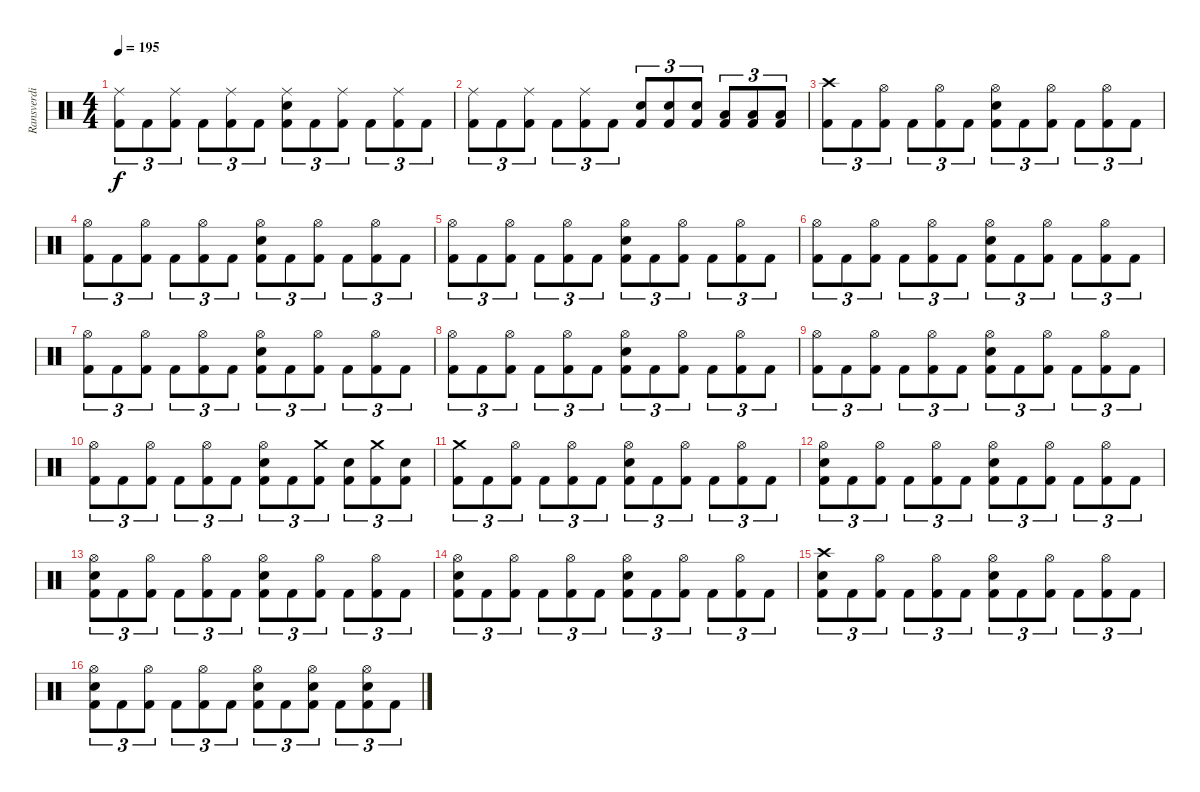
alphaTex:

\track ("Ransverdi" "Ransverdi") {instrument percussion}
\staff {score}
\articulation defaults
\ts (4 4)
\tempo 195
\clef neutral
\ks c
("Ride (middle)" "Kick (hit) 2").8{tu (3 2) dy f} "Kick (hit) 2".8{tu (3 2)} ("Ride (middle)" "Kick (hit) 2").8{tu (3 2)} "Kick (hit) 2".8{tu (3 2)} ("Ride (middle)" "Kick (hit) 2").8{tu (3 2)} "Kick (hit) 2".8{tu (3 2)} ("Ride (middle)" "Snare (hit) 2" "Kick (hit) 2").8{tu (3 2)} "Kick (hit) 2".8{tu (3 2)} ("Ride (middle)" "Kick (hit) 2").8{tu (3 2)} "Kick (hit) 2".8{tu (3 2)} ("Ride (middle)" "Kick (hit) 2").8{tu (3 2)} "Kick (hit) 2".8{tu (3 2)} |
("Ride (middle)" "Kick (hit) 2").8{tu (3 2)} "Kick (hit) 2".8{tu (3 2)} ("Ride (middle)" "Kick (hit) 2").8{tu (3 2)} "Kick (hit) 2".8{tu (3 2)} ("Ride (middle)" "Kick (hit) 2").8{tu (3 2)} "Kick (hit) 2".8{tu (3 2)} ("Snare (hit) 2" "Kick (hit) 2").8{tu (3 2)} ("Snare (hit) 2" "Kick (hit) 2").8{tu (3 2)} ("Snare (hit) 2" "Kick (hit) 2").8{tu (3 2)} ("Low Tom (hit)" "Kick (hit) 2").8{tu (3 2)} ("Low Tom (hit)" "Kick (hit) 2").8{tu (3 2)} ("Low Tom (hit)" "Kick (hit) 2").8{tu (3 2)} |
("Crash high (hit)" "Kick (hit) 2").8{tu (3 2)} "Kick (hit) 2".8{tu (3 2)} ("Hi-Hat (open)" "Kick (hit) 2").8{tu (3 2)} "Kick (hit) 2".8{tu (3 2)} ("Hi-Hat (open)" "Kick (hit) 2").8{tu (3 2)} "Kick (hit) 2".8{tu (3 2)} ("Hi-Hat (open)" "Snare (hit) 2" "Kick (hit) 2").8{tu (3 2)} "Kick (hit) 2".8{tu (3 2)} ("Hi-Hat (open)" "Kick (hit) 2").8{tu (3 2)} "Kick (hit) 2".8{tu (3 2)} ("Hi-Hat (open)" "Kick (hit) 2").8{tu (3 2)} "Kick (hit) 2".8{tu (3 2)} |
("Hi-Hat (open)" "Kick (hit) 2").8{tu (3 2)} "Kick (hit) 2".8{tu (3 2)} ("Hi-Hat (open)" "Kick (hit) 2").8{tu (3 2)} "Kick (hit) 2".8{tu (3 2)} ("Hi-Hat (open)" "Kick (hit) 2").8{tu (3 2)} "Kick (hit) 2".8{tu (3 2)} ("Hi-Hat (open)" "Snare (hit) 2" "Kick (hit) 2").8{tu (3 2)} "Kick (hit) 2".8{tu (3 2)} ("Hi-Hat (open)" "Kick (hit) 2").8{tu (3 2)} "Kick (hit) 2".8{tu (3 2)} ("Hi-Hat (open)" "Kick (hit) 2").8{tu (3 2)} "Kick (hit) 2".8{tu (3 2)} |
("Hi-Hat (open)" "Kick (hit) 2").8{tu (3 2)} "Kick (hit) 2".8{tu (3 2)} ("Hi-Hat (open)" "Kick (hit) 2").8{tu (3 2)} "Kick (hit) 2".8{tu (3 2)} ("Hi-Hat (open)" "Kick (hit) 2").8{tu (3 2)} "Kick (hit) 2".8{tu (3 2)} ("Hi-Hat (open)" "Snare (hit) 2" "Kick (hit) 2").8{tu (3 2)} "Kick (hit) 2".8{tu (3 2)} ("Hi-Hat (open)" "Kick (hit) 2").8{tu (3 2)} "Kick (hit) 2".8{tu (3 2)} ("Hi-Hat (open)" "Kick (hit) 2").8{tu (3 2)} "Kick (hit) 2".8{tu (3 2)} |
("Hi-Hat (open)" "Kick (hit) 2").8{tu (3 2)} "Kick (hit) 2".8{tu (3 2)} ("Hi-Hat (open)" "Kick (hit) 2").8{tu (3 2)} "Kick (hit) 2".8{tu (3 2)} ("Hi-Hat (open)" "Kick (hit) 2").8{tu (3 2)} "Kick (hit) 2".8{tu (3 2)} ("Hi-Hat (open)" "Snare (hit) 2" "Kick (hit) 2").8{tu (3 2)} "Kick (hit) 2".8{tu (3 2)} ("Hi-Hat (open)" "Kick (hit) 2").8{tu (3 2)} "Kick (hit) 2".8{tu (3 2)} ("Hi-Hat (open)" "Kick (hit) 2").8{tu (3 2)} "Kick (hit) 2".8{tu (3 2)} |
("Hi-Hat (open)" "Kick (hit) 2").8{tu (3 2)} "Kick (hit) 2".8{tu (3 2)} ("Hi-Hat (open)" "Kick (hit) 2").8{tu (3 2)} "Kick (hit) 2".8{tu (3 2)} ("Hi-Hat (open)" "Kick (hit) 2").8{tu (3 2)} "Kick (hit) 2".8{tu (3 2)} ("Hi-Hat (open)" "Snare (hit) 2" "Kick (hit) 2").8{tu (3 2)} "Kick (hit) 2".8{tu (3 2)} ("Hi-Hat (open)" "Kick (hit) 2").8{tu (3 2)} "Kick (hit) 2".8{tu (3 2)} ("Hi-Hat (open)" "Kick (hit) 2").8{tu (3 2)} "Kick (hit) 2".8{tu (3 2)} |
("Hi-Hat (open)" "Kick (hit) 2").8{tu (3 2)} "Kick (hit) 2".8{tu (3 2)} ("Hi-Hat (open)" "Kick (hit) 2").8{tu (3 2)} "Kick (hit) 2".8{tu (3 2)} ("Hi-Hat (open)" "Kick (hit) 2").8{tu (3 2)} "Kick (hit) 2".8{tu (3 2)} ("Hi-Hat (open)" "Snare (hit) 2" "Kick (hit) 2").8{tu (3 2)} "Kick (hit) 2".8{tu (3 2)} ("Hi-Hat (open)" "Kick (hit) 2").8{tu (3 2)} "Kick (hit) 2".8{tu (3 2)} ("Hi-Hat (open)" "Kick (hit) 2").8{tu (3 2)} "Kick (hit) 2".8{tu (3 2)} |
("Hi-Hat (open)" "Kick (hit) 2").8{tu (3 2)} "Kick (hit) 2".8{tu (3 2)} ("Hi-Hat (open)" "Kick (hit) 2").8{tu (3 2)} "Kick (hit) 2".8{tu (3 2)} ("Hi-Hat (open)" "Kick (hit) 2").8{tu (3 2)} "Kick (hit) 2".8{tu (3 2)} ("Hi-Hat (open)" "Snare (hit) 2" "Kick (hit) 2").8{tu (3 2)} "Kick (hit) 2".8{tu (3 2)} ("Hi-Hat (open)" "Kick (hit) 2").8{tu (3 2)} "Kick (hit) 2".8{tu (3 2)} ("Hi-Hat (open)" "Kick (hit) 2").8{tu (3 2)} "Kick (hit) 2".8{tu (3 2)} |
("Hi-Hat (open)" "Kick (hit) 2").8{tu (3 2)} "Kick (hit) 2".8{tu (3 2)} ("Hi-Hat (open)" "Kick (hit) 2").8{tu (3 2)} "Kick (hit) 2".8{tu (3 2)} ("Hi-Hat (open)" "Kick (hit) 2").8{tu (3 2)} "Kick (hit) 2".8{tu (3 2)} ("Hi-Hat (open)" "Snare (hit) 2" "Kick (hit) 2").8{tu (3 2)} "Kick (hit) 2".8{tu (3 2)} ("Crash medium (hit)" "Kick (hit) 2").8{tu (3 2)} ("Snare (hit) 2" "Kick (hit) 2").8{tu (3 2)} ("Crash medium (hit)" "Kick (hit) 2").8{tu (3 2)} ("Snare (hit) 2" "Kick (hit) 2").8{tu (3 2)} |
("Crash medium (hit)" "Kick (hit) 2").8{tu (3 2)} "Kick (hit) 2".8{tu (3 2)} ("Hi-Hat (open)" "Kick (hit) 2").8{tu (3 2)} "Kick (hit) 2".8{tu (3 2)} ("Hi-Hat (open)" "Kick (hit) 2").8{tu (3 2)} "Kick (hit) 2".8{tu (3 2)} ("Hi-Hat (open)" "Snare (hit) 2" "Kick (hit) 2").8{tu (3 2)} "Kick (hit) 2".8{tu (3 2)} ("Hi-Hat (open)" "Kick (hit) 2").8{tu (3 2)} "Kick (hit) 2".8{tu (3 2)} ("Hi-Hat (open)" "Kick (hit) 2").8{tu (3 2)} "Kick (hit) 2".8{tu (3 2)} |
("Hi-Hat (open)" "Snare (hit) 2" "Kick (hit) 2").8{tu (3 2)} "Kick (hit) 2".8{tu (3 2)} ("Hi-Hat (open)" "Kick (hit) 2").8{tu (3 2)} "Kick (hit) 2".8{tu (3 2)} ("Hi-Hat (open)" "Kick (hit) 2").8{tu (3 2)} "Kick (hit) 2".8{tu (3 2)} ("Hi-Hat (open)" "Snare (hit) 2" "Kick (hit) 2").8{tu (3 2)} "Kick (hit) 2".8{tu (3 2)} ("Hi-Hat (open)" "Kick (hit) 2").8{tu (3 2)} "Kick (hit) 2".8{tu (3 2)} ("Hi-Hat (open)" "Kick (hit) 2").8{tu (3 2)} "Kick (hit) 2".8{tu (3 2)} |
("Hi-Hat (open)" "Snare (hit) 2" "Kick (hit) 2").8{tu (3 2)} "Kick (hit) 2".8{tu (3 2)} ("Hi-Hat (open)" "Kick (hit) 2").8{tu (3 2)} "Kick (hit) 2".8{tu (3 2)} ("Hi-Hat (open)" "Kick (hit) 2").8{tu (3 2)} "Kick (hit) 2".8{tu (3 2)} ("Hi-Hat (open)" "Snare (hit) 2" "Kick (hit) 2").8{tu (3 2)} "Kick (hit) 2".8{tu (3 2)} ("Hi-Hat (open)" "Kick (hit) 2").8{tu (3 2)} "Kick (hit) 2".8{tu (3 2)} ("Hi-Hat (open)" "Kick (hit) 2").8{tu (3 2)} "Kick (hit) 2".8{tu (3 2)} |
("Hi-Hat (open)" "Snare (hit) 2" "Kick (hit) 2").8{tu (3 2)} "Kick (hit) 2".8{tu (3 2)} ("Hi-Hat (open)" "Kick (hit) 2").8{tu (3 2)} "Kick (hit) 2".8{tu (3 2)} ("Hi-Hat (open)" "Kick (hit) 2").8{tu (3 2)} "Kick (hit) 2".8{tu (3 2)} ("Hi-Hat (open)" "Snare (hit) 2" "Kick (hit) 2").8{tu (3 2)} "Kick (hit) 2".8{tu (3 2)} ("Hi-Hat (open)" "Kick (hit) 2").8{tu (3 2)} "Kick (hit) 2".8{tu (3 2)} ("Hi-Hat (open)" "Kick (hit) 2").8{tu (3 2)} "Kick (hit) 2".8{tu (3 2)} |
("Crash high (hit)" "Snare (hit) 2" "Kick (hit) 2").8{tu (3 2)} "Kick (hit) 2".8{tu (3 2)} ("Hi-Hat (open)" "Kick (hit) 2").8{tu (3 2)} "Kick (hit) 2".8{tu (3 2)} ("Hi-Hat (open)" "Kick (hit) 2").8{tu (3 2)} "Kick (hit) 2".8{tu (3 2)} ("Hi-Hat (open)" "Snare (hit) 2" "Kick (hit) 2").8{tu (3 2)} "Kick (hit) 2".8{tu (3 2)} ("Hi-Hat (open)" "Kick (hit) 2").8{tu (3 2)} "Kick (hit) 2".8{tu (3 2)} ("Hi-Hat (open)" "Kick (hit) 2").8{tu (3 2)} "Kick (hit) 2".8{tu (3 2)} |
("Hi-Hat (open)" "Snare (hit) 2" "Kick (hit) 2").8{tu (3 2)} "Kick (hit) 2".8{tu (3 2)} ("Hi-Hat (open)" "Kick (hit) 2").8{tu (3 2)} "Kick (hit) 2".8{tu (3 2)} ("Hi-Hat (open)" "Kick (hit) 2").8{tu (3 2)} "Kick (hit) 2".8{tu (3 2)} ("Hi-Hat (open)" "Snare (hit) 2" "Kick (hit) 2").8{tu (3 2)} "Kick (hit) 2".8{tu (3 2)} ("Hi-Hat (open)" "Snare (hit) 2" "Kick (hit) 2").8{tu (3 2)} "Kick (hit) 2".8{tu (3 2)} ("Hi-Hat (open)" "Snare (hit) 2" "Kick (hit) 2").8{tu (3 2)} "Kick (hit) 2".8{tu (3 2)}
